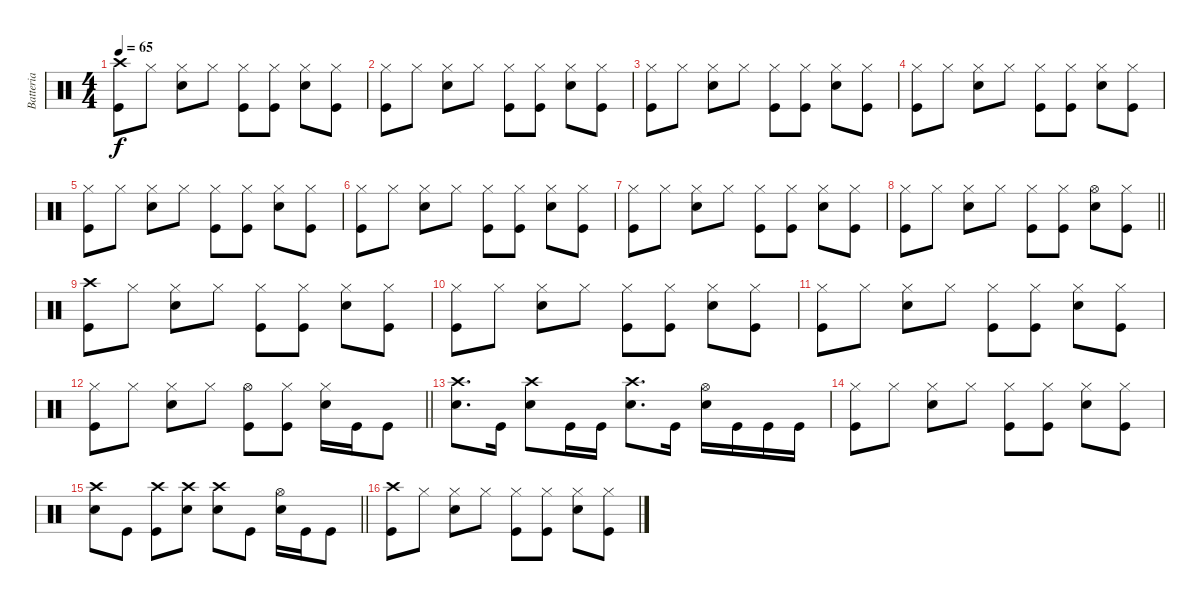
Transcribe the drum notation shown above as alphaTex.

\track ("Batteria" "Batteria") {instrument percussion}
\staff {score}
\articulation defaults
\ts (4 4)
\tempo 65
\clef neutral
\ks c
("Kick (hit)" "Crash high (hit)").8{dy f} "Hi-Hat (closed)".8 ("Snare (hit) 2" "Hi-Hat (closed)").8 "Hi-Hat (closed)".8 ("Kick (hit)" "Hi-Hat (closed)").8 ("Kick (hit)" "Hi-Hat (closed)").8 ("Snare (hit) 2" "Hi-Hat (closed)").8 ("Kick (hit)" "Hi-Hat (closed)").8 |
("Kick (hit)" "Hi-Hat (closed)").8 "Hi-Hat (closed)".8 ("Snare (hit) 2" "Hi-Hat (closed)").8 "Hi-Hat (closed)".8 ("Kick (hit)" "Hi-Hat (closed)").8 ("Kick (hit)" "Hi-Hat (closed)").8 ("Snare (hit) 2" "Hi-Hat (closed)").8 ("Kick (hit)" "Hi-Hat (closed)").8 |
("Kick (hit)" "Hi-Hat (closed)").8 "Hi-Hat (closed)".8 ("Snare (hit) 2" "Hi-Hat (closed)").8 "Hi-Hat (closed)".8 ("Kick (hit)" "Hi-Hat (closed)").8 ("Kick (hit)" "Hi-Hat (closed)").8 ("Snare (hit) 2" "Hi-Hat (closed)").8 ("Kick (hit)" "Hi-Hat (closed)").8 |
("Kick (hit)" "Hi-Hat (closed)").8 "Hi-Hat (closed)".8 ("Snare (hit) 2" "Hi-Hat (closed)").8 "Hi-Hat (closed)".8 ("Kick (hit)" "Hi-Hat (closed)").8 ("Kick (hit)" "Hi-Hat (closed)").8 ("Snare (hit) 2" "Hi-Hat (closed)").8 ("Kick (hit)" "Hi-Hat (closed)").8 |
("Kick (hit)" "Hi-Hat (closed)").8 "Hi-Hat (closed)".8 ("Snare (hit) 2" "Hi-Hat (closed)").8 "Hi-Hat (closed)".8 ("Kick (hit)" "Hi-Hat (closed)").8 ("Kick (hit)" "Hi-Hat (closed)").8 ("Snare (hit) 2" "Hi-Hat (closed)").8 ("Kick (hit)" "Hi-Hat (closed)").8 |
("Kick (hit)" "Hi-Hat (closed)").8 "Hi-Hat (closed)".8 ("Snare (hit) 2" "Hi-Hat (closed)").8 "Hi-Hat (closed)".8 ("Kick (hit)" "Hi-Hat (closed)").8 ("Kick (hit)" "Hi-Hat (closed)").8 ("Snare (hit) 2" "Hi-Hat (closed)").8 ("Kick (hit)" "Hi-Hat (closed)").8 |
("Kick (hit)" "Hi-Hat (closed)").8 "Hi-Hat (closed)".8 ("Snare (hit) 2" "Hi-Hat (closed)").8 "Hi-Hat (closed)".8 ("Kick (hit)" "Hi-Hat (closed)").8 ("Kick (hit)" "Hi-Hat (closed)").8 ("Snare (hit) 2" "Hi-Hat (closed)").8 ("Kick (hit)" "Hi-Hat (closed)").8 |
\barLineRight lightlight
("Kick (hit)" "Hi-Hat (closed)").8 "Hi-Hat (closed)".8 ("Snare (hit) 2" "Hi-Hat (closed)").8 "Hi-Hat (closed)".8 ("Kick (hit)" "Hi-Hat (closed)").8 ("Kick (hit)" "Hi-Hat (closed)").8 ("Snare (hit) 2" "Hi-Hat (open)").8 ("Kick (hit)" "Hi-Hat (closed)").8 |
("Kick (hit)" "Crash high (hit)").8 "Hi-Hat (closed)".8 ("Snare (hit) 2" "Hi-Hat (closed)").8 "Hi-Hat (closed)".8 ("Kick (hit)" "Hi-Hat (closed)").8 ("Kick (hit)" "Hi-Hat (closed)").8 ("Snare (hit) 2" "Hi-Hat (closed)").8 ("Kick (hit)" "Hi-Hat (closed)").8 |
("Kick (hit)" "Hi-Hat (closed)").8 "Hi-Hat (closed)".8 ("Snare (hit) 2" "Hi-Hat (closed)").8 "Hi-Hat (closed)".8 ("Kick (hit)" "Hi-Hat (closed)").8 ("Kick (hit)" "Hi-Hat (closed)").8 ("Snare (hit) 2" "Hi-Hat (closed)").8 ("Kick (hit)" "Hi-Hat (closed)").8 |
("Kick (hit)" "Hi-Hat (closed)").8 "Hi-Hat (closed)".8 ("Snare (hit) 2" "Hi-Hat (closed)").8 "Hi-Hat (closed)".8 ("Kick (hit)" "Hi-Hat (closed)").8 ("Kick (hit)" "Hi-Hat (closed)").8 ("Snare (hit) 2" "Hi-Hat (closed)").8 ("Kick (hit)" "Hi-Hat (closed)").8 |
\barLineRight lightlight
("Kick (hit)" "Hi-Hat (closed)").8 "Hi-Hat (closed)".8 ("Snare (hit) 2" "Hi-Hat (closed)").8 "Hi-Hat (closed)".8 ("Kick (hit)" "Hi-Hat (open)").8 ("Kick (hit)" "Hi-Hat (closed)").8 ("Snare (hit) 2" "Hi-Hat (closed)").16 "Kick (hit)".16 "Kick (hit)".8 |
("Snare (hit) 2" "Crash high (hit)").8{d} "Kick (hit)".16 ("Snare (hit) 2" "Crash high (hit)").8 "Kick (hit)".16 "Kick (hit)".16 ("Snare (hit) 2" "Crash high (hit)").8{d} "Kick (hit)".16 ("Snare (hit) 2" "Hi-Hat (open)").16 "Kick (hit)".16 "Kick (hit)".16 "Kick (hit)".16 |
("Kick (hit)" "Hi-Hat (closed)").8 "Hi-Hat (closed)".8 ("Snare (hit) 2" "Hi-Hat (closed)").8 "Hi-Hat (closed)".8 ("Kick (hit)" "Hi-Hat (closed)").8 ("Kick (hit)" "Hi-Hat (closed)").8 ("Snare (hit) 2" "Hi-Hat (closed)").8 ("Kick (hit)" "Hi-Hat (closed)").8 |
\barLineRight lightlight
("Snare (hit) 2" "Crash high (hit)").8 "Kick (hit)".8 ("Crash high (hit)" "Kick (hit)").8 ("Snare (hit) 2" "Crash high (hit)").8 ("Crash high (hit)" "Snare (hit) 2").8 "Kick (hit)".8 ("Snare (hit) 2" "Hi-Hat (open)").16 "Kick (hit)".16 "Kick (hit)".8 |
("Kick (hit)" "Crash high (hit)").8 "Hi-Hat (closed)".8 ("Snare (hit) 2" "Hi-Hat (closed)").8 "Hi-Hat (closed)".8 ("Kick (hit)" "Hi-Hat (closed)").8 ("Kick (hit)" "Hi-Hat (closed)").8 ("Snare (hit) 2" "Hi-Hat (closed)").8 ("Kick (hit)" "Hi-Hat (closed)").8
